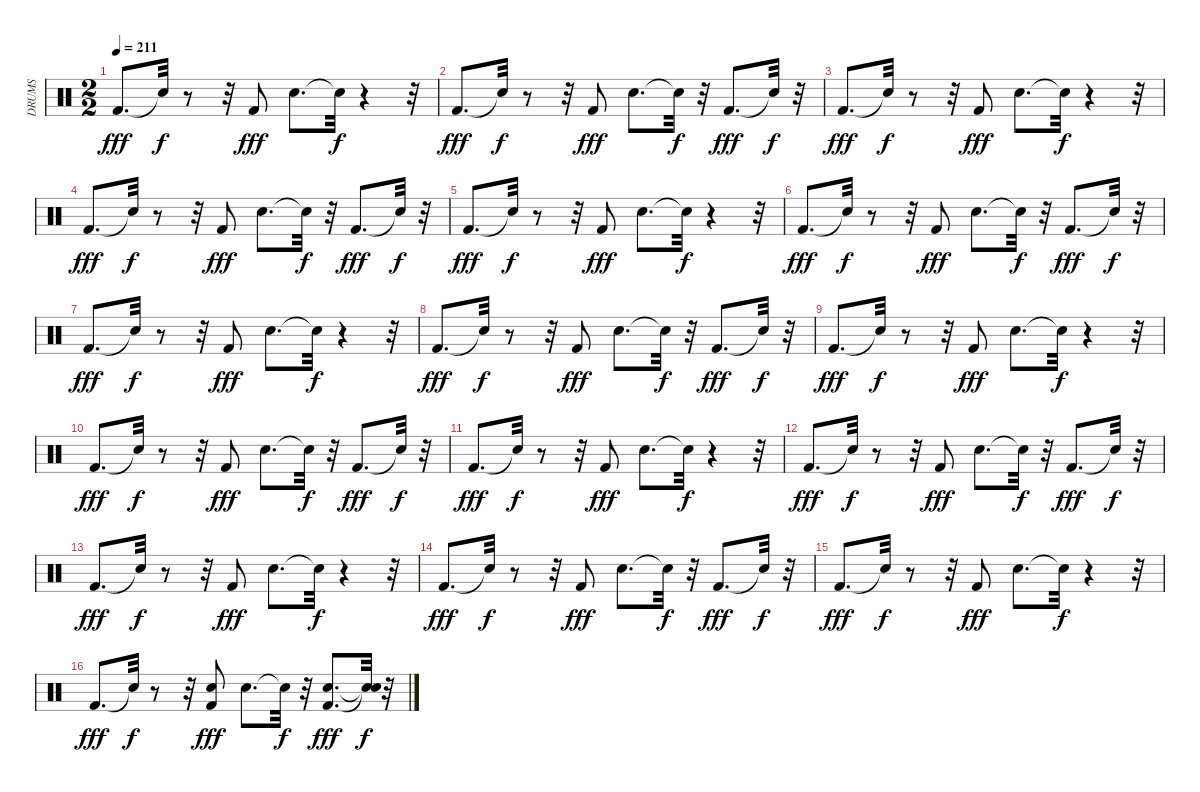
\track ("DRUMS" "DRUMS") {instrument percussion}
\staff {score}
\articulation defaults
\ts (2 2)
\tempo 211
\clef neutral
\ks c "Kick (hit) 2".8{d dy fff} "Snare (hit)"{t}.32{dy f}
r.8 r.32 "Kick (hit) 2".8{dy fff} "Snare (hit) 2".8{d} "Snare (hit)"{t}.32{dy f} r.4 r.32 |
"Kick (hit) 2".8{d dy fff} "Snare (hit)"{t}.32{dy f} r.8 r.32 "Kick (hit) 2".8{dy fff} "Snare (hit) 2".8{d} "Snare (hit)"{t}.32{dy f} r.32 "Kick (hit) 2".8{d dy fff} "Snare (hit)"{t}.32{dy f} r.32 |
"Kick (hit) 2".8{d dy fff} "Snare (hit)"{t}.32{dy f} r.8 r.32 "Kick (hit) 2".8{dy fff} "Snare (hit) 2".8{d} "Snare (hit)"{t}.32{dy f} r.4 r.32 |
"Kick (hit) 2".8{d dy fff} "Snare (hit)"{t}.32{dy f} r.8 r.32 "Kick (hit) 2".8{dy fff} "Snare (hit) 2".8{d} "Snare (hit)"{t}.32{dy f} r.32 "Kick (hit) 2".8{d dy fff} "Snare (hit)"{t}.32{dy f} r.32 |
"Kick (hit) 2".8{d dy fff} "Snare (hit)"{t}.32{dy f} r.8 r.32 "Kick (hit) 2".8{dy fff} "Snare (hit) 2".8{d} "Snare (hit)"{t}.32{dy f} r.4 r.32 |
"Kick (hit) 2".8{d dy fff} "Snare (hit)"{t}.32{dy f} r.8 r.32 "Kick (hit) 2".8{dy fff} "Snare (hit) 2".8{d} "Snare (hit)"{t}.32{dy f} r.32 "Kick (hit) 2".8{d dy fff} "Snare (hit)"{t}.32{dy f} r.32 |
"Kick (hit) 2".8{d dy fff} "Snare (hit)"{t}.32{dy f} r.8 r.32 "Kick (hit) 2".8{dy fff} "Snare (hit) 2".8{d} "Snare (hit)"{t}.32{dy f} r.4 r.32 |
"Kick (hit) 2".8{d dy fff} "Snare (hit)"{t}.32{dy f} r.8 r.32 "Kick (hit) 2".8{dy fff} "Snare (hit) 2".8{d} "Snare (hit)"{t}.32{dy f} r.32 "Kick (hit) 2".8{d dy fff} "Snare (hit)"{t}.32{dy f} r.32 |
"Kick (hit) 2".8{d dy fff} "Snare (hit)"{t}.32{dy f} r.8 r.32 "Kick (hit) 2".8{dy fff} "Snare (hit) 2".8{d} "Snare (hit)"{t}.32{dy f} r.4 r.32 |
"Kick (hit) 2".8{d dy fff} "Snare (hit)"{t}.32{dy f} r.8 r.32 "Kick (hit) 2".8{dy fff} "Snare (hit) 2".8{d} "Snare (hit)"{t}.32{dy f} r.32 "Kick (hit) 2".8{d dy fff} "Snare (hit)"{t}.32{dy f} r.32 |
"Kick (hit) 2".8{d dy fff} "Snare (hit)"{t}.32{dy f} r.8 r.32 "Kick (hit) 2".8{dy fff} "Snare (hit) 2".8{d} "Snare (hit)"{t}.32{dy f} r.4 r.32 |
"Kick (hit) 2".8{d dy fff} "Snare (hit)"{t}.32{dy f} r.8 r.32 "Kick (hit) 2".8{dy fff} "Snare (hit) 2".8{d} "Snare (hit)"{t}.32{dy f} r.32 "Kick (hit) 2".8{d dy fff} "Snare (hit)"{t}.32{dy f} r.32 |
"Kick (hit) 2".8{d dy fff} "Snare (hit)"{t}.32{dy f} r.8 r.32 "Kick (hit) 2".8{dy fff} "Snare (hit) 2".8{d} "Snare (hit)"{t}.32{dy f} r.4 r.32 |
"Kick (hit) 2".8{d dy fff} "Snare (hit)"{t}.32{dy f} r.8 r.32 "Kick (hit) 2".8{dy fff} "Snare (hit) 2".8{d} "Snare (hit)"{t}.32{dy f} r.32 "Kick (hit) 2".8{d dy fff} "Snare (hit)"{t}.32{dy f} r.32 |
"Kick (hit) 2".8{d dy fff} "Snare (hit)"{t}.32{dy f} r.8 r.32 "Kick (hit) 2".8{dy fff} "Snare (hit) 2".8{d} "Snare (hit)"{t}.32{dy f} r.4 r.32 |
"Kick (hit) 2".8{d dy fff} "Snare (hit)"{t}.32{dy f} r.8 r.32 ("Snare (hit) 2" "Kick (hit) 2").8{dy fff} "Snare (hit) 2".8{d} "Snare (hit)"{t}.32{dy f} r.32 ("Snare (hit) 2" "Kick (hit) 2").8{d dy fff} ("Snare (hit)"{t} "Snare (hit)"{t}).32{dy f} r.32
